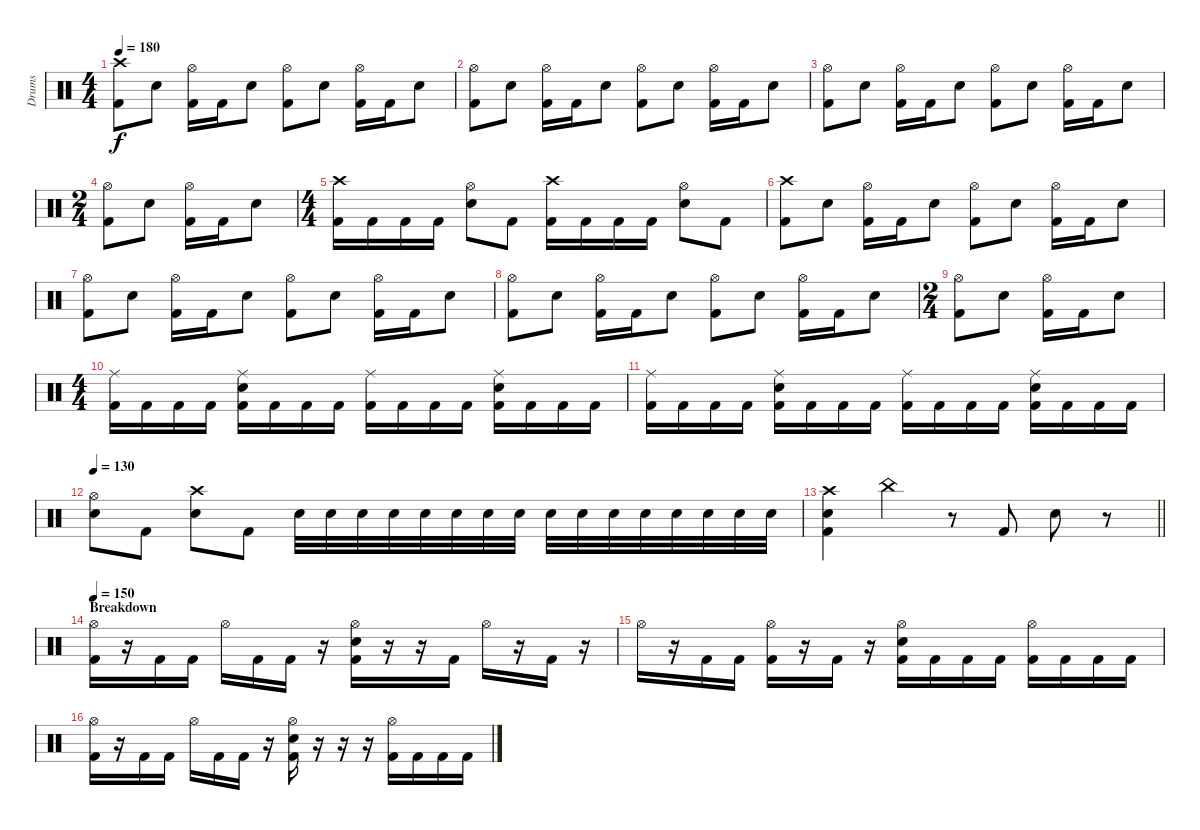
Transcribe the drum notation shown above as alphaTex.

\track ("Drums" "Drums") {instrument percussion}
\staff {score}
\articulation defaults
\ts (4 4)
\tempo 180
\clef neutral
\ks c
("Crash high (hit)" "Kick (hit) 2").8{dy f} "Electric Snare (hit)".8 ("Hi-Hat (open)" "Kick (hit) 2").16 "Kick (hit) 2".16 "Electric Snare (hit)".8 ("Hi-Hat (open)" "Kick (hit) 2").8 "Electric Snare (hit)".8 ("Hi-Hat (open)" "Kick (hit) 2").16 "Kick (hit) 2".16 "Electric Snare (hit)".8 |
("Hi-Hat (open)" "Kick (hit) 2").8 "Electric Snare (hit)".8 ("Hi-Hat (open)" "Kick (hit) 2").16 "Kick (hit) 2".16 "Electric Snare (hit)".8 ("Hi-Hat (open)" "Kick (hit) 2").8 "Electric Snare (hit)".8 ("Hi-Hat (open)" "Kick (hit) 2").16 "Kick (hit) 2".16 "Electric Snare (hit)".8 |
("Hi-Hat (open)" "Kick (hit) 2").8 "Electric Snare (hit)".8 ("Hi-Hat (open)" "Kick (hit) 2").16 "Kick (hit) 2".16 "Electric Snare (hit)".8 ("Hi-Hat (open)" "Kick (hit) 2").8 "Electric Snare (hit)".8 ("Hi-Hat (open)" "Kick (hit) 2").16 "Kick (hit) 2".16 "Electric Snare (hit)".8 |
\ts (2 4)
("Hi-Hat (open)" "Kick (hit) 2").8 "Electric Snare (hit)".8 ("Hi-Hat (open)" "Kick (hit) 2").16 "Kick (hit) 2".16 "Electric Snare (hit)".8 |
\ts (4 4)
("Crash high (hit)" "Kick (hit) 2").16 "Kick (hit) 2".16 "Kick (hit) 2".16 "Kick (hit) 2".16 ("Hi-Hat (open)" "Electric Snare (hit)").8 "Kick (hit) 2".8 ("Crash high (hit)" "Kick (hit) 2").16 "Kick (hit) 2".16 "Kick (hit) 2".16 "Kick (hit) 2".16 ("Hi-Hat (open)" "Electric Snare (hit)").8 "Kick (hit) 2".8 |
("Crash high (hit)" "Kick (hit) 2").8 "Electric Snare (hit)".8 ("Hi-Hat (open)" "Kick (hit) 2").16 "Kick (hit) 2".16 "Electric Snare (hit)".8 ("Hi-Hat (open)" "Kick (hit) 2").8 "Electric Snare (hit)".8 ("Hi-Hat (open)" "Kick (hit) 2").16 "Kick (hit) 2".16 "Electric Snare (hit)".8 |
("Hi-Hat (open)" "Kick (hit) 2").8 "Electric Snare (hit)".8 ("Hi-Hat (open)" "Kick (hit) 2").16 "Kick (hit) 2".16 "Electric Snare (hit)".8 ("Hi-Hat (open)" "Kick (hit) 2").8 "Electric Snare (hit)".8 ("Hi-Hat (open)" "Kick (hit) 2").16 "Kick (hit) 2".16 "Electric Snare (hit)".8 |
("Hi-Hat (open)" "Kick (hit) 2").8 "Electric Snare (hit)".8 ("Hi-Hat (open)" "Kick (hit) 2").16 "Kick (hit) 2".16 "Electric Snare (hit)".8 ("Hi-Hat (open)" "Kick (hit) 2").8 "Electric Snare (hit)".8 ("Hi-Hat (open)" "Kick (hit) 2").16 "Kick (hit) 2".16 "Electric Snare (hit)".8 |
\ts (2 4)
("Hi-Hat (open)" "Kick (hit) 2").8 "Electric Snare (hit)".8 ("Hi-Hat (open)" "Kick (hit) 2").16 "Kick (hit) 2".16 "Electric Snare (hit)".8 |
\ts (4 4)
("Ride (middle)" "Kick (hit) 2").16 "Kick (hit) 2".16 "Kick (hit) 2".16 "Kick (hit) 2".16 ("Ride (middle)" "Electric Snare (hit)" "Kick (hit) 2").16 "Kick (hit) 2".16 "Kick (hit) 2".16 "Kick (hit) 2".16 ("Ride (middle)" "Kick (hit) 2").16 "Kick (hit) 2".16 "Kick (hit) 2".16 "Kick (hit) 2".16 ("Ride (middle)" "Electric Snare (hit)" "Kick (hit) 2").16 "Kick (hit) 2".16 "Kick (hit) 2".16 "Kick (hit) 2".16 |
("Ride (middle)" "Kick (hit) 2").16 "Kick (hit) 2".16 "Kick (hit) 2".16 "Kick (hit) 2".16 ("Ride (middle)" "Electric Snare (hit)" "Kick (hit) 2").16 "Kick (hit) 2".16 "Kick (hit) 2".16 "Kick (hit) 2".16 ("Ride (middle)" "Kick (hit) 2").16 "Kick (hit) 2".16 "Kick (hit) 2".16 "Kick (hit) 2".16 ("Ride (middle)" "Electric Snare (hit)" "Kick (hit) 2").16 "Kick (hit) 2".16 "Kick (hit) 2".16 "Kick (hit) 2".16 |
\tempo 130
("Hi-Hat (open)" "Electric Snare (hit)").8 "Kick (hit) 2".8 ("Crash high (hit)" "Electric Snare (hit)").8 "Kick (hit) 2".8 "Electric Snare (hit)".32 "Electric Snare (hit)".32 "Electric Snare (hit)".32 "Electric Snare (hit)".32 "Electric Snare (hit)".32 "Electric Snare (hit)".32 "Electric Snare (hit)".32 "Electric Snare (hit)".32 "Electric Snare (hit)".32 "Electric Snare (hit)".32 "Electric Snare (hit)".32 "Electric Snare (hit)".32 "Electric Snare (hit)".32 "Electric Snare (hit)".32 "Electric Snare (hit)".32 "Electric Snare (hit)".32 |
\barLineRight lightlight
("Crash high (hit)" "Electric Snare (hit)" "Kick (hit) 2").4 "China (hit)".4 r.8 "Kick (hit) 2".8 "Electric Snare (hit)".8 r.8 |
\section ("" "Breakdown")
\tempo 150
("Hi-Hat (open)" "Kick (hit) 2").16 r.16 "Kick (hit) 2".16 "Kick (hit) 2".16 "Hi-Hat (open)".16 "Kick (hit) 2".16 "Kick (hit) 2".16 r.16 ("Hi-Hat (open)" "Electric Snare (hit)" "Kick (hit) 2").16 r.16 r.16 "Kick (hit) 2".16 "Hi-Hat (open)".16 r.16 "Kick (hit) 2".16 r.16 |
"Hi-Hat (open)".16 r.16 "Kick (hit) 2".16 "Kick (hit) 2".16 ("Hi-Hat (open)" "Kick (hit) 2").16 r.16 "Kick (hit) 2".16 r.16 ("Hi-Hat (open)" "Electric Snare (hit)" "Kick (hit) 2").16 "Kick (hit) 2".16 "Kick (hit) 2".16 "Kick (hit) 2".16 ("Hi-Hat (open)" "Kick (hit) 2").16 "Kick (hit) 2".16 "Kick (hit) 2".16 "Kick (hit) 2".16 |
("Hi-Hat (open)" "Kick (hit) 2").16 r.16 "Kick (hit) 2".16 "Kick (hit) 2".16 "Hi-Hat (open)".16 "Kick (hit) 2".16 "Kick (hit) 2".16 r.16 ("Hi-Hat (open)" "Electric Snare (hit)" "Kick (hit) 2").16 r.16 r.16 r.16 ("Hi-Hat (open)" "Kick (hit) 2").16 "Kick (hit) 2".16 "Kick (hit) 2".16 "Kick (hit) 2".16
